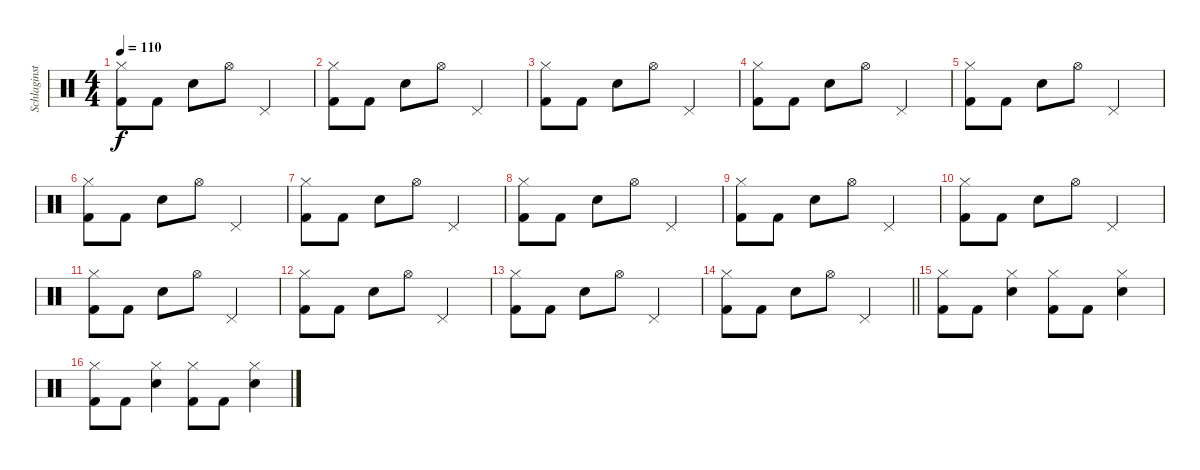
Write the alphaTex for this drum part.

\track ("Schlaginstrumente - Auswahl" "Schlaginst") {instrument percussion}
\staff {score}
\articulation defaults
\ts (4 4)
\tempo 110
\clef neutral
\ks c
("Hi-Hat (closed)" "Kick (hit) 2").8{dy f} "Kick (hit) 2".8 "Snare (hit) 2".8 "Hi-Hat (open)".8 "Pedal Hi-Hat (hit)".2 |
("Hi-Hat (closed)" "Kick (hit) 2").8 "Kick (hit) 2".8 "Snare (hit) 2".8 "Hi-Hat (open)".8 "Pedal Hi-Hat (hit)".2 |
("Hi-Hat (closed)" "Kick (hit) 2").8 "Kick (hit) 2".8 "Snare (hit) 2".8 "Hi-Hat (open)".8 "Pedal Hi-Hat (hit)".2 |
("Hi-Hat (closed)" "Kick (hit) 2").8 "Kick (hit) 2".8 "Snare (hit) 2".8 "Hi-Hat (open)".8 "Pedal Hi-Hat (hit)".2 |
("Hi-Hat (closed)" "Kick (hit) 2").8 "Kick (hit) 2".8 "Snare (hit) 2".8 "Hi-Hat (open)".8 "Pedal Hi-Hat (hit)".2 |
("Hi-Hat (closed)" "Kick (hit) 2").8 "Kick (hit) 2".8 "Snare (hit) 2".8 "Hi-Hat (open)".8 "Pedal Hi-Hat (hit)".2 |
("Hi-Hat (closed)" "Kick (hit) 2").8 "Kick (hit) 2".8 "Snare (hit) 2".8 "Hi-Hat (open)".8 "Pedal Hi-Hat (hit)".2 |
("Hi-Hat (closed)" "Kick (hit) 2").8 "Kick (hit) 2".8 "Snare (hit) 2".8 "Hi-Hat (open)".8 "Pedal Hi-Hat (hit)".2 |
("Hi-Hat (closed)" "Kick (hit) 2").8 "Kick (hit) 2".8 "Snare (hit) 2".8 "Hi-Hat (open)".8 "Pedal Hi-Hat (hit)".2 |
("Hi-Hat (closed)" "Kick (hit) 2").8 "Kick (hit) 2".8 "Snare (hit) 2".8 "Hi-Hat (open)".8 "Pedal Hi-Hat (hit)".2 |
("Hi-Hat (closed)" "Kick (hit) 2").8 "Kick (hit) 2".8 "Snare (hit) 2".8 "Hi-Hat (open)".8 "Pedal Hi-Hat (hit)".2 |
("Hi-Hat (closed)" "Kick (hit) 2").8 "Kick (hit) 2".8 "Snare (hit) 2".8 "Hi-Hat (open)".8 "Pedal Hi-Hat (hit)".2 |
("Hi-Hat (closed)" "Kick (hit) 2").8 "Kick (hit) 2".8 "Snare (hit) 2".8 "Hi-Hat (open)".8 "Pedal Hi-Hat (hit)".2 |
\barLineRight lightlight
("Hi-Hat (closed)" "Kick (hit) 2").8 "Kick (hit) 2".8 "Snare (hit) 2".8 "Hi-Hat (open)".8 "Pedal Hi-Hat (hit)".2 |
("Hi-Hat (closed)" "Kick (hit) 2").8 "Kick (hit) 2".8 ("Hi-Hat (closed)" "Snare (hit) 2").4 ("Hi-Hat (closed)" "Kick (hit) 2").8 "Kick (hit) 2".8 ("Hi-Hat (closed)" "Snare (hit) 2").4 |
("Hi-Hat (closed)" "Kick (hit) 2").8 "Kick (hit) 2".8 ("Hi-Hat (closed)" "Snare (hit) 2").4 ("Hi-Hat (closed)" "Kick (hit) 2").8 "Kick (hit) 2".8 ("Hi-Hat (closed)" "Snare (hit) 2").4
